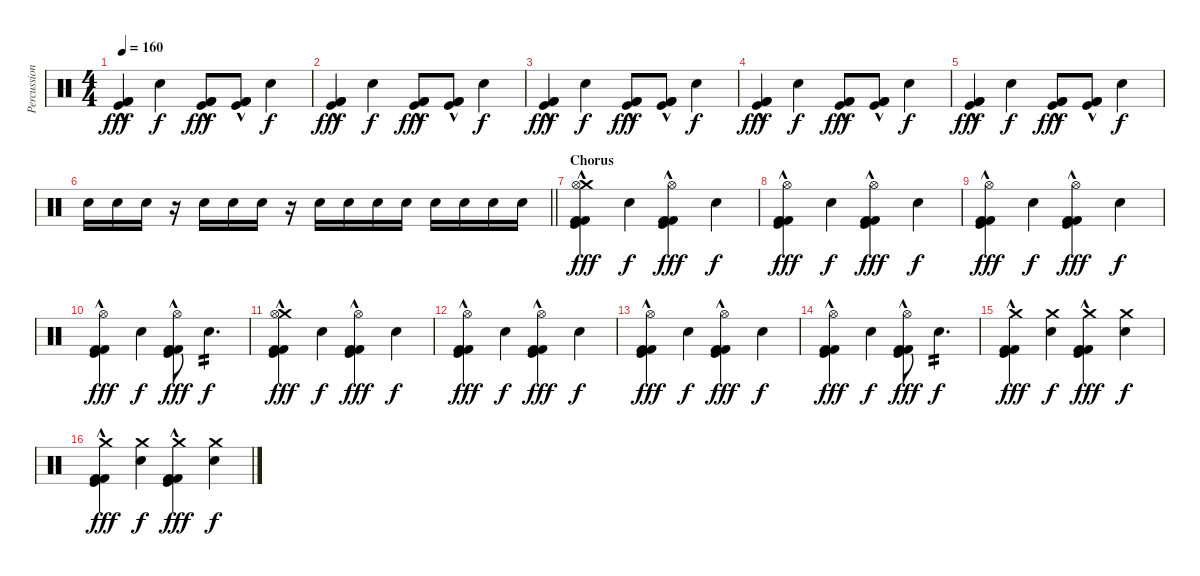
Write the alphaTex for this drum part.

\track ("Percussion" "Percussion") {instrument percussion}
\staff {score}
\articulation defaults
\ts (4 4)
\tempo 160
\clef neutral
\ks c
("Kick (hit) 2"{hac} "Kick (hit)"{hac} "Kick (hit) 2").4{dy fff} "Snare (hit) 2".4{dy f} ("Kick (hit) 2"{hac} "Kick (hit)"{hac} "Kick (hit) 2").8{dy fff} ("Kick (hit) 2"{hac} "Kick (hit)"{hac} "Kick (hit) 2"{hac}).8 "Snare (hit) 2".4{dy f} |
("Kick (hit) 2"{hac} "Kick (hit)"{hac} "Kick (hit) 2").4{dy fff} "Snare (hit) 2".4{dy f} ("Kick (hit) 2"{hac} "Kick (hit)"{hac} "Kick (hit) 2").8{dy fff} ("Kick (hit) 2"{hac} "Kick (hit)"{hac} "Kick (hit) 2"{hac}).8 "Snare (hit) 2".4{dy f} |
("Kick (hit) 2"{hac} "Kick (hit)"{hac} "Kick (hit) 2").4{dy fff} "Snare (hit) 2".4{dy f} ("Kick (hit) 2"{hac} "Kick (hit)"{hac} "Kick (hit) 2").8{dy fff} ("Kick (hit) 2"{hac} "Kick (hit)"{hac} "Kick (hit) 2"{hac}).8 "Snare (hit) 2".4{dy f} |
("Kick (hit) 2"{hac} "Kick (hit)"{hac} "Kick (hit) 2").4{dy fff} "Snare (hit) 2".4{dy f} ("Kick (hit) 2"{hac} "Kick (hit)"{hac} "Kick (hit) 2").8{dy fff} ("Kick (hit) 2"{hac} "Kick (hit)"{hac} "Kick (hit) 2"{hac}).8 "Snare (hit) 2".4{dy f} |
("Kick (hit) 2"{hac} "Kick (hit)"{hac} "Kick (hit) 2").4{dy fff} "Snare (hit) 2".4{dy f} ("Kick (hit) 2"{hac} "Kick (hit)"{hac} "Kick (hit) 2").8{dy fff} ("Kick (hit) 2"{hac} "Kick (hit)"{hac} "Kick (hit) 2"{hac}).8 "Snare (hit) 2".4{dy f} |
\barLineRight lightlight "Snare (hit) 2".16 "Snare (hit) 2".16 "Snare (hit) 2".16
r.16 "Snare (hit) 2".16 "Snare (hit) 2".16 "Snare (hit) 2".16 r.16 "Snare (hit) 2".16 "Snare (hit) 2".16 "Snare (hit) 2".16 "Snare (hit) 2".16 "Snare (hit) 2".16 "Snare (hit) 2".16 "Snare (hit) 2".16 "Snare (hit) 2".16 |
\section ("" "Chorus")
("Crash medium (hit)" "Hi-Hat (open)" "Kick (hit) 2"{hac} "Kick (hit)"{hac} "Kick (hit) 2").4{dy fff} "Snare (hit) 2".4{dy f} ("Hi-Hat (open)" "Kick (hit) 2"{hac} "Kick (hit)"{hac} "Kick (hit) 2").4{dy fff} "Snare (hit) 2".4{dy f} |
("Hi-Hat (open)" "Kick (hit) 2"{hac} "Kick (hit)"{hac} "Kick (hit) 2").4{dy fff} "Snare (hit) 2".4{dy f} ("Hi-Hat (open)" "Kick (hit) 2"{hac} "Kick (hit)"{hac} "Kick (hit) 2").4{dy fff} "Snare (hit) 2".4{dy f} |
("Hi-Hat (open)" "Kick (hit) 2"{hac} "Kick (hit)"{hac} "Kick (hit) 2").4{dy fff} "Snare (hit) 2".4{dy f} ("Hi-Hat (open)" "Kick (hit) 2"{hac} "Kick (hit)"{hac} "Kick (hit) 2").4{dy fff} "Snare (hit) 2".4{dy f} |
("Hi-Hat (open)" "Kick (hit) 2"{hac} "Kick (hit)"{hac} "Kick (hit) 2").4{dy fff} "Snare (hit) 2".4{dy f} ("Hi-Hat (open)" "Kick (hit) 2"{hac} "Kick (hit)"{hac} "Kick (hit) 2").8{dy fff} "Snare (hit) 2".4{d tp 2 dy f} |
("Crash medium (hit)" "Hi-Hat (open)" "Kick (hit) 2"{hac} "Kick (hit)"{hac} "Kick (hit) 2").4{dy fff} "Snare (hit) 2".4{dy f} ("Hi-Hat (open)" "Kick (hit) 2"{hac} "Kick (hit)"{hac} "Kick (hit) 2").4{dy fff} "Snare (hit) 2".4{dy f} |
("Hi-Hat (open)" "Kick (hit) 2"{hac} "Kick (hit)"{hac} "Kick (hit) 2").4{dy fff} "Snare (hit) 2".4{dy f} ("Hi-Hat (open)" "Kick (hit) 2"{hac} "Kick (hit)"{hac} "Kick (hit) 2").4{dy fff} "Snare (hit) 2".4{dy f} |
("Hi-Hat (open)" "Kick (hit) 2"{hac} "Kick (hit)"{hac} "Kick (hit) 2").4{dy fff} "Snare (hit) 2".4{dy f} ("Hi-Hat (open)" "Kick (hit) 2"{hac} "Kick (hit)"{hac} "Kick (hit) 2").4{dy fff} "Snare (hit) 2".4{dy f} |
("Hi-Hat (open)" "Kick (hit) 2"{hac} "Kick (hit)"{hac} "Kick (hit) 2").4{dy fff} "Snare (hit) 2".4{dy f} ("Hi-Hat (open)" "Kick (hit) 2"{hac} "Kick (hit)"{hac} "Kick (hit) 2").8{dy fff} "Snare (hit) 2".4{d tp 2 dy f} |
("Crash medium (hit)" "Kick (hit) 2"{hac} "Kick (hit)"{hac} "Kick (hit) 2").4{dy fff} ("Crash medium (hit)" "Snare (hit) 2").4{dy f} ("Crash medium (hit)" "Kick (hit) 2"{hac} "Kick (hit)"{hac} "Kick (hit) 2").4{dy fff} ("Crash medium (hit)" "Snare (hit) 2").4{dy f} |
("Crash medium (hit)" "Kick (hit) 2"{hac} "Kick (hit)"{hac} "Kick (hit) 2").4{dy fff} ("Crash medium (hit)" "Snare (hit) 2").4{dy f} ("Crash medium (hit)" "Kick (hit) 2"{hac} "Kick (hit)"{hac} "Kick (hit) 2").4{dy fff} ("Crash medium (hit)" "Snare (hit) 2").4{dy f}
